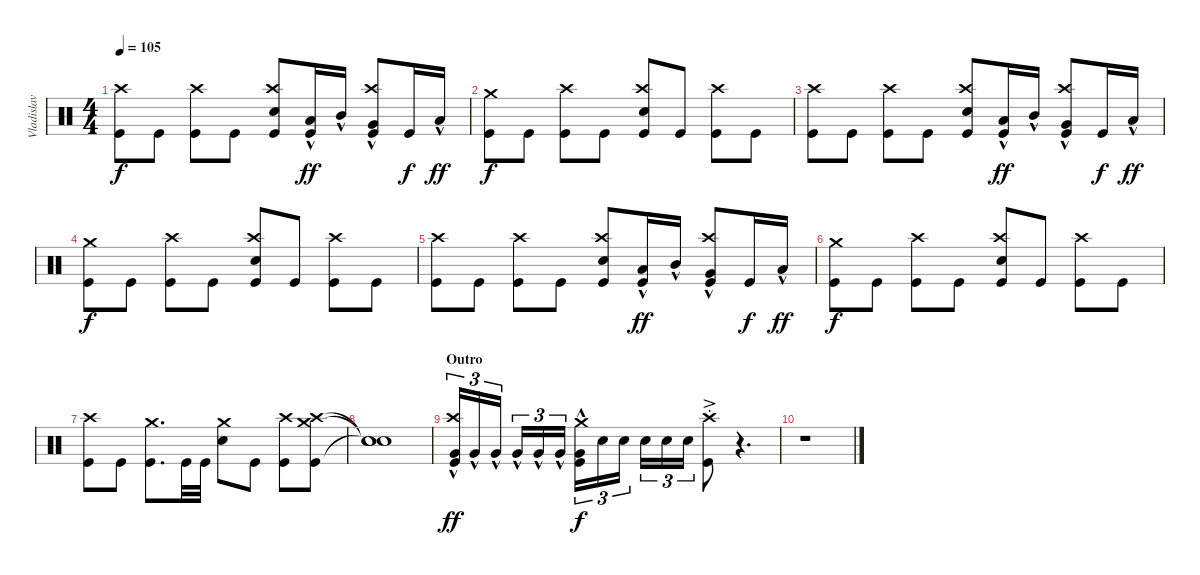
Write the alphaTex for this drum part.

\track ("Vladislav Ulasevish" "Vladislav ") {instrument percussion}
\staff {score}
\articulation defaults
\ts (4 4)
\tempo 105
\clef neutral
\ks c
("Kick (hit)" "Crash high (hit)").8{dy f} "Kick (hit)".8 ("Kick (hit)" "Crash high (hit)").8 "Kick (hit)".8 ("Kick (hit)" "Crash high (hit)" "Snare (hit) 2").8 ("Kick (hit)" "Low Tom (hit)"{hac}).16{dy ff} "Mid Tom (hit)"{hac}.16 ("Kick (hit)" "Crash high (hit)" "Very Low Tom (hit)"{hac}).8 "Kick (hit)".16{dy f} "Low Tom (hit)"{hac}.16{dy ff} |
("Kick (hit)" "Crash medium (hit)").8{dy f} "Kick (hit)".8 ("Kick (hit)" "Crash high (hit)").8 "Kick (hit)".8 ("Kick (hit)" "Crash high (hit)" "Snare (hit) 2").8 "Kick (hit)".8 ("Kick (hit)" "Crash high (hit)").8 "Kick (hit)".8 |
("Kick (hit)" "Crash high (hit)").8 "Kick (hit)".8 ("Kick (hit)" "Crash high (hit)").8 "Kick (hit)".8 ("Kick (hit)" "Crash high (hit)" "Snare (hit) 2").8 ("Kick (hit)" "Low Tom (hit)"{hac}).16{dy ff} "Mid Tom (hit)"{hac}.16 ("Kick (hit)" "Crash high (hit)" "Very Low Tom (hit)"{hac}).8 "Kick (hit)".16{dy f} "Low Tom (hit)"{hac}.16{dy ff} |
("Kick (hit)" "Crash medium (hit)").8{dy f} "Kick (hit)".8 ("Kick (hit)" "Crash high (hit)").8 "Kick (hit)".8 ("Kick (hit)" "Crash high (hit)" "Snare (hit) 2").8 "Kick (hit)".8 ("Kick (hit)" "Crash high (hit)").8 "Kick (hit)".8 |
("Kick (hit)" "Crash high (hit)").8 "Kick (hit)".8 ("Kick (hit)" "Crash high (hit)").8 "Kick (hit)".8 ("Kick (hit)" "Crash high (hit)" "Snare (hit) 2").8 ("Kick (hit)" "Low Tom (hit)"{hac}).16{dy ff} "Mid Tom (hit)"{hac}.16 ("Kick (hit)" "Crash high (hit)" "Very Low Tom (hit)"{hac}).8 "Kick (hit)".16{dy f} "Low Tom (hit)"{hac}.16{dy ff} |
("Kick (hit)" "Crash medium (hit)").8{dy f} "Kick (hit)".8 ("Kick (hit)" "Crash high (hit)").8 "Kick (hit)".8 ("Kick (hit)" "Crash high (hit)" "Snare (hit) 2").8 "Kick (hit)".8 ("Kick (hit)" "Crash high (hit)").8 "Kick (hit)".8 |
("Kick (hit)" "Crash high (hit)").8 "Kick (hit)".8 ("Kick (hit)" "Crash medium (hit)").8{d} "Kick (hit)".32 "Kick (hit)".32 ("Snare (hit) 2" "Crash medium (hit)").8 "Kick (hit)".8 ("Kick (hit)" "Crash high (hit)").8 ("Kick (hit)" "Crash medium (hit)" "Crash high (hit)").8 |
("Snare (hit)"{t} "Snare (hit)"{t} "Snare (hit)"{t}).1 |
\section ("" "Outro")
("Kick (hit)" "Very Low Tom (hit)"{hac} "Crash high (hit)").16{tu (3 2) dy ff} "Very Low Tom (hit)"{hac}.16{tu (3 2)} "Very Low Tom (hit)"{hac}.16{tu (3 2)} "Very Low Tom (hit)"{hac}.16{tu (3 2)} "Very Low Tom (hit)"{hac}.16{tu (3 2)} "Very Low Tom (hit)"{hac}.16{tu (3 2)} ("Very Low Tom (hit)"{hac} "Kick (hit)" "Crash medium (hit)").16{tu (3 2) dy f} "Snare (hit) 2".16{tu (3 2)} "Snare (hit) 2".16{tu (3 2)} "Snare (hit) 2".16{tu (3 2)} "Snare (hit) 2".16{tu (3 2)} "Snare (hit) 2".16{tu (3 2)} ("Kick (hit)" "Crash high (hit)"{ac st}).8 r.4{d} |
r.1
